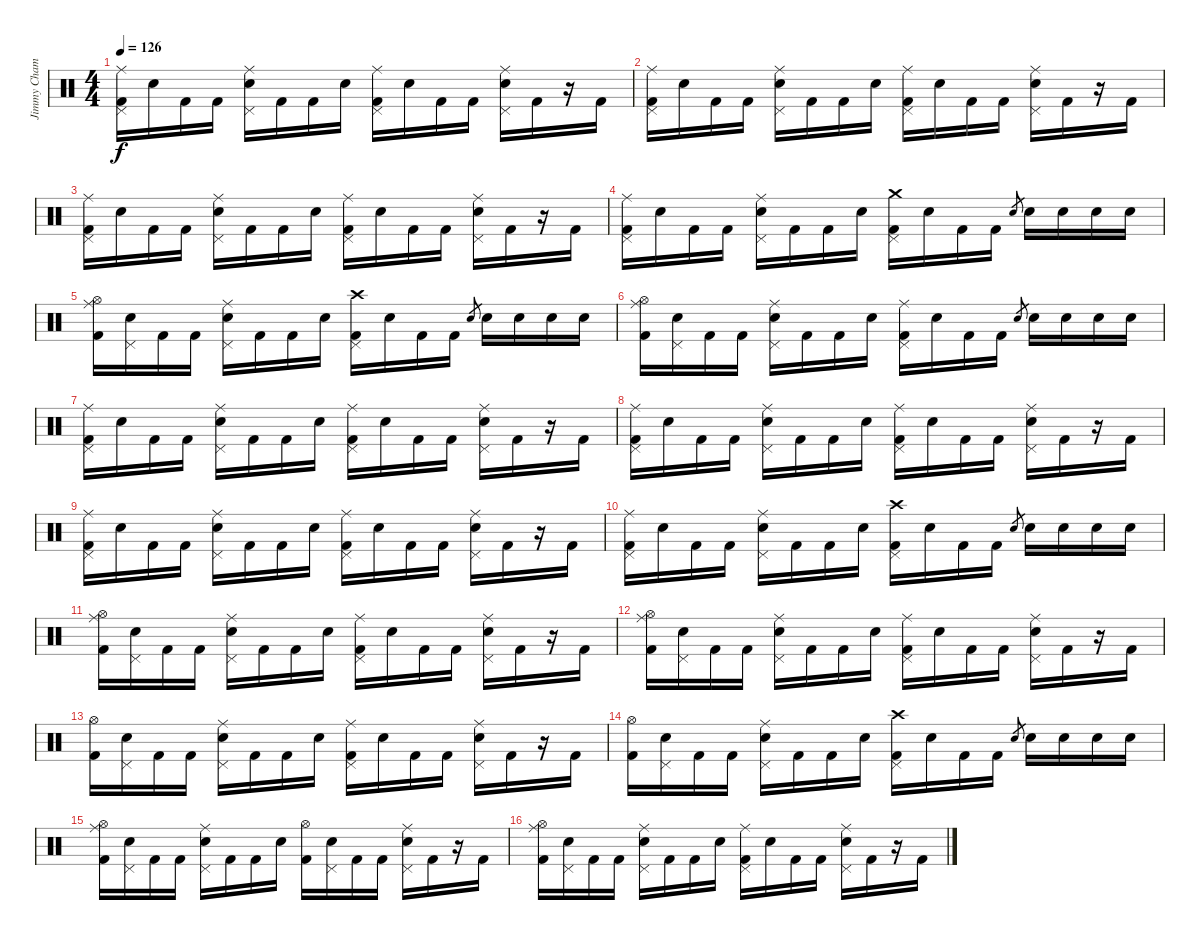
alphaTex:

\track ("Jimmy Chamberlain" "Jimmy Cham") {instrument percussion}
\staff {score}
\articulation defaults
\ts (4 4)
\tempo 126
\clef neutral
\ks c
("Ride (middle)" "Pedal Hi-Hat (hit)" "Kick (hit) 2").16{dy f} "Snare (hit) 2".16 "Kick (hit) 2".16 "Kick (hit) 2".16 ("Ride (middle)" "Pedal Hi-Hat (hit)" "Snare (hit) 2").16 "Kick (hit) 2".16 "Kick (hit) 2".16 "Snare (hit) 2".16 ("Ride (middle)" "Pedal Hi-Hat (hit)" "Kick (hit) 2").16 "Snare (hit) 2".16 "Kick (hit) 2".16 "Kick (hit) 2".16 ("Ride (middle)" "Pedal Hi-Hat (hit)" "Snare (hit) 2").16 "Kick (hit) 2".16 r.16 "Kick (hit) 2".16 |
("Ride (middle)" "Pedal Hi-Hat (hit)" "Kick (hit) 2").16 "Snare (hit) 2".16 "Kick (hit) 2".16 "Kick (hit) 2".16 ("Ride (middle)" "Pedal Hi-Hat (hit)" "Snare (hit) 2").16 "Kick (hit) 2".16 "Kick (hit) 2".16 "Snare (hit) 2".16 ("Ride (middle)" "Pedal Hi-Hat (hit)" "Kick (hit) 2").16 "Snare (hit) 2".16 "Kick (hit) 2".16 "Kick (hit) 2".16 ("Ride (middle)" "Pedal Hi-Hat (hit)" "Snare (hit) 2").16 "Kick (hit) 2".16 r.16 "Kick (hit) 2".16 |
("Ride (middle)" "Pedal Hi-Hat (hit)" "Kick (hit) 2").16 "Snare (hit) 2".16 "Kick (hit) 2".16 "Kick (hit) 2".16 ("Ride (middle)" "Pedal Hi-Hat (hit)" "Snare (hit) 2").16 "Kick (hit) 2".16 "Kick (hit) 2".16 "Snare (hit) 2".16 ("Ride (middle)" "Pedal Hi-Hat (hit)" "Kick (hit) 2").16 "Snare (hit) 2".16 "Kick (hit) 2".16 "Kick (hit) 2".16 ("Ride (middle)" "Pedal Hi-Hat (hit)" "Snare (hit) 2").16 "Kick (hit) 2".16 r.16 "Kick (hit) 2".16 |
("Ride (middle)" "Pedal Hi-Hat (hit)" "Kick (hit) 2").16 "Snare (hit) 2".16 "Kick (hit) 2".16 "Kick (hit) 2".16 ("Ride (middle)" "Pedal Hi-Hat (hit)" "Snare (hit) 2").16 "Kick (hit) 2".16 "Kick (hit) 2".16 "Snare (hit) 2".16 ("Crash medium (hit)" "Pedal Hi-Hat (hit)" "Kick (hit) 2").16 "Snare (hit) 2".16 "Kick (hit) 2".16 "Kick (hit) 2".16 "Snare (hit) 2".8{gr} "Snare (hit) 2".16 "Snare (hit) 2".16 "Snare (hit) 2".16 "Snare (hit) 2".16 |
("Ride (middle)" "Hi-Hat (open)" "Kick (hit) 2").16 ("Pedal Hi-Hat (hit)" "Snare (hit) 2").16 "Kick (hit) 2".16 "Kick (hit) 2".16 ("Ride (middle)" "Pedal Hi-Hat (hit)" "Snare (hit) 2").16 "Kick (hit) 2".16 "Kick (hit) 2".16 "Snare (hit) 2".16 ("Crash high (hit)" "Pedal Hi-Hat (hit)" "Kick (hit) 2").16 "Snare (hit) 2".16 "Kick (hit) 2".16 "Kick (hit) 2".16 "Snare (hit) 2".8{gr} "Snare (hit) 2".16 "Snare (hit) 2".16 "Snare (hit) 2".16 "Snare (hit) 2".16 |
("Ride (middle)" "Hi-Hat (open)" "Kick (hit) 2").16 ("Pedal Hi-Hat (hit)" "Snare (hit) 2").16 "Kick (hit) 2".16 "Kick (hit) 2".16 ("Ride (middle)" "Pedal Hi-Hat (hit)" "Snare (hit) 2").16 "Kick (hit) 2".16 "Kick (hit) 2".16 "Snare (hit) 2".16 ("Ride (middle)" "Pedal Hi-Hat (hit)" "Kick (hit) 2").16 "Snare (hit) 2".16 "Kick (hit) 2".16 "Kick (hit) 2".16 "Snare (hit) 2".8{gr} "Snare (hit) 2".16 "Snare (hit) 2".16 "Snare (hit) 2".16 "Snare (hit) 2".16 |
("Ride (middle)" "Pedal Hi-Hat (hit)" "Kick (hit) 2").16 "Snare (hit) 2".16 "Kick (hit) 2".16 "Kick (hit) 2".16 ("Ride (middle)" "Pedal Hi-Hat (hit)" "Snare (hit) 2").16 "Kick (hit) 2".16 "Kick (hit) 2".16 "Snare (hit) 2".16 ("Ride (middle)" "Pedal Hi-Hat (hit)" "Kick (hit) 2").16 "Snare (hit) 2".16 "Kick (hit) 2".16 "Kick (hit) 2".16 ("Ride (middle)" "Pedal Hi-Hat (hit)" "Snare (hit) 2").16 "Kick (hit) 2".16 r.16 "Kick (hit) 2".16 |
("Ride (middle)" "Pedal Hi-Hat (hit)" "Kick (hit) 2").16 "Snare (hit) 2".16 "Kick (hit) 2".16 "Kick (hit) 2".16 ("Ride (middle)" "Pedal Hi-Hat (hit)" "Snare (hit) 2").16 "Kick (hit) 2".16 "Kick (hit) 2".16 "Snare (hit) 2".16 ("Ride (middle)" "Pedal Hi-Hat (hit)" "Kick (hit) 2").16 "Snare (hit) 2".16 "Kick (hit) 2".16 "Kick (hit) 2".16 ("Ride (middle)" "Pedal Hi-Hat (hit)" "Snare (hit) 2").16 "Kick (hit) 2".16 r.16 "Kick (hit) 2".16 |
("Ride (middle)" "Pedal Hi-Hat (hit)" "Kick (hit) 2").16 "Snare (hit) 2".16 "Kick (hit) 2".16 "Kick (hit) 2".16 ("Ride (middle)" "Pedal Hi-Hat (hit)" "Snare (hit) 2").16 "Kick (hit) 2".16 "Kick (hit) 2".16 "Snare (hit) 2".16 ("Ride (middle)" "Pedal Hi-Hat (hit)" "Kick (hit) 2").16 "Snare (hit) 2".16 "Kick (hit) 2".16 "Kick (hit) 2".16 ("Ride (middle)" "Pedal Hi-Hat (hit)" "Snare (hit) 2").16 "Kick (hit) 2".16 r.16 "Kick (hit) 2".16 |
("Ride (middle)" "Pedal Hi-Hat (hit)" "Kick (hit) 2").16 "Snare (hit) 2".16 "Kick (hit) 2".16 "Kick (hit) 2".16 ("Ride (middle)" "Pedal Hi-Hat (hit)" "Snare (hit) 2").16 "Kick (hit) 2".16 "Kick (hit) 2".16 "Snare (hit) 2".16 ("Crash high (hit)" "Pedal Hi-Hat (hit)" "Kick (hit) 2").16 "Snare (hit) 2".16 "Kick (hit) 2".16 "Kick (hit) 2".16 "Snare (hit) 2".8{gr} "Snare (hit) 2".16 "Snare (hit) 2".16 "Snare (hit) 2".16 "Snare (hit) 2".16 |
("Ride (middle)" "Hi-Hat (open)" "Kick (hit) 2").16 ("Pedal Hi-Hat (hit)" "Snare (hit) 2").16 "Kick (hit) 2".16 "Kick (hit) 2".16 ("Ride (middle)" "Pedal Hi-Hat (hit)" "Snare (hit) 2").16 "Kick (hit) 2".16 "Kick (hit) 2".16 "Snare (hit) 2".16 ("Ride (middle)" "Pedal Hi-Hat (hit)" "Kick (hit) 2").16 "Snare (hit) 2".16 "Kick (hit) 2".16 "Kick (hit) 2".16 ("Ride (middle)" "Pedal Hi-Hat (hit)" "Snare (hit) 2").16 "Kick (hit) 2".16 r.16 "Kick (hit) 2".16 |
("Ride (middle)" "Hi-Hat (open)" "Kick (hit) 2").16 ("Pedal Hi-Hat (hit)" "Snare (hit) 2").16 "Kick (hit) 2".16 "Kick (hit) 2".16 ("Ride (middle)" "Pedal Hi-Hat (hit)" "Snare (hit) 2").16 "Kick (hit) 2".16 "Kick (hit) 2".16 "Snare (hit) 2".16 ("Ride (middle)" "Pedal Hi-Hat (hit)" "Kick (hit) 2").16 "Snare (hit) 2".16 "Kick (hit) 2".16 "Kick (hit) 2".16 ("Ride (middle)" "Pedal Hi-Hat (hit)" "Snare (hit) 2").16 "Kick (hit) 2".16 r.16 "Kick (hit) 2".16 |
("Hi-Hat (open)" "Kick (hit) 2").16 ("Pedal Hi-Hat (hit)" "Snare (hit) 2").16 "Kick (hit) 2".16 "Kick (hit) 2".16 ("Ride (middle)" "Pedal Hi-Hat (hit)" "Snare (hit) 2").16 "Kick (hit) 2".16 "Kick (hit) 2".16 "Snare (hit) 2".16 ("Ride (middle)" "Pedal Hi-Hat (hit)" "Kick (hit) 2").16 "Snare (hit) 2".16 "Kick (hit) 2".16 "Kick (hit) 2".16 ("Ride (middle)" "Pedal Hi-Hat (hit)" "Snare (hit) 2").16 "Kick (hit) 2".16 r.16 "Kick (hit) 2".16 |
("Hi-Hat (open)" "Kick (hit) 2").16 ("Pedal Hi-Hat (hit)" "Snare (hit) 2").16 "Kick (hit) 2".16 "Kick (hit) 2".16 ("Ride (middle)" "Pedal Hi-Hat (hit)" "Snare (hit) 2").16 "Kick (hit) 2".16 "Kick (hit) 2".16 "Snare (hit) 2".16 ("Crash high (hit)" "Pedal Hi-Hat (hit)" "Kick (hit) 2").16 "Snare (hit) 2".16 "Kick (hit) 2".16 "Kick (hit) 2".16 "Snare (hit) 2".8{gr} "Snare (hit) 2".16 "Snare (hit) 2".16 "Snare (hit) 2".16 "Snare (hit) 2".16 |
("Ride (middle)" "Hi-Hat (open)" "Kick (hit) 2").16 ("Pedal Hi-Hat (hit)" "Snare (hit) 2").16 "Kick (hit) 2".16 "Kick (hit) 2".16 ("Ride (middle)" "Pedal Hi-Hat (hit)" "Snare (hit) 2").16 "Kick (hit) 2".16 "Kick (hit) 2".16 "Snare (hit) 2".16 ("Hi-Hat (open)" "Kick (hit) 2").16 ("Pedal Hi-Hat (hit)" "Snare (hit) 2").16 "Kick (hit) 2".16 "Kick (hit) 2".16 ("Ride (middle)" "Pedal Hi-Hat (hit)" "Snare (hit) 2").16 "Kick (hit) 2".16 r.16 "Kick (hit) 2".16 |
("Ride (middle)" "Hi-Hat (open)" "Kick (hit) 2").16 ("Pedal Hi-Hat (hit)" "Snare (hit) 2").16 "Kick (hit) 2".16 "Kick (hit) 2".16 ("Ride (middle)" "Pedal Hi-Hat (hit)" "Snare (hit) 2").16 "Kick (hit) 2".16 "Kick (hit) 2".16 "Snare (hit) 2".16 ("Ride (middle)" "Pedal Hi-Hat (hit)" "Kick (hit) 2").16 "Snare (hit) 2".16 "Kick (hit) 2".16 "Kick (hit) 2".16 ("Ride (middle)" "Pedal Hi-Hat (hit)" "Snare (hit) 2").16 "Kick (hit) 2".16 r.16 "Kick (hit) 2".16
